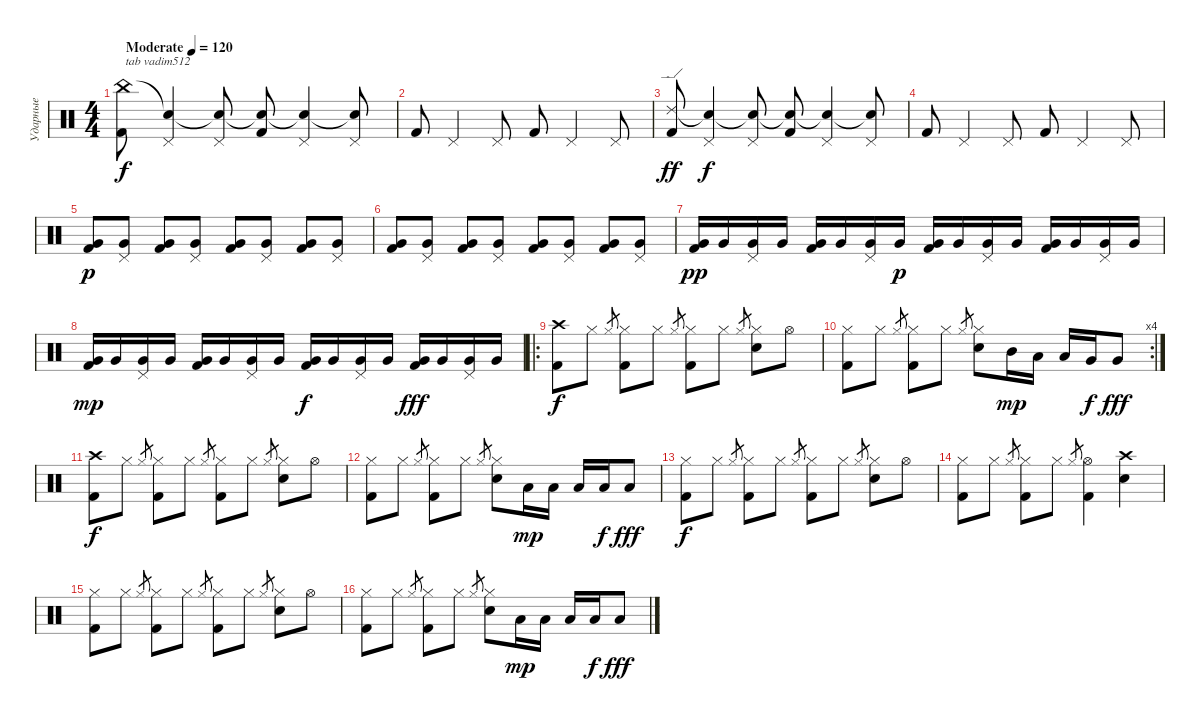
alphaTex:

\track ("Ударные" "Ударные") {instrument percussion}
\staff {score}
\articulation defaults
\ts (4 4)
\tempo (120 "Moderate")
\clef neutral
\ks c
("Kick (hit) 2" "China (hit)").8{txt "tab vadim512" dy f} ("Pedal Hi-Hat (hit)" "Snare (hit)"{t}).4 ("Pedal Hi-Hat (hit)" "Snare (hit)"{t}).8 ("Kick (hit) 2" "Snare (hit)"{t}).8 ("Pedal Hi-Hat (hit)" "Snare (hit)"{t}).4 ("Pedal Hi-Hat (hit)" "Snare (hit)"{t}).8 |
"Kick (hit) 2".8 "Pedal Hi-Hat (hit)".4 "Pedal Hi-Hat (hit)".8 "Kick (hit) 2".8 "Pedal Hi-Hat (hit)".4 "Pedal Hi-Hat (hit)".8 |
("Kick (hit) 2" "Ride (edge) 2").8{dy ff} ("Pedal Hi-Hat (hit)" "Snare (hit)"{t}).4{dy f} ("Pedal Hi-Hat (hit)" "Snare (hit)"{t}).8 ("Kick (hit) 2" "Snare (hit)"{t}).8 ("Pedal Hi-Hat (hit)" "Snare (hit)"{t}).4 ("Pedal Hi-Hat (hit)" "Snare (hit)"{t}).8 |
"Kick (hit) 2".8 "Pedal Hi-Hat (hit)".4 "Pedal Hi-Hat (hit)".8 "Kick (hit) 2".8 "Pedal Hi-Hat (hit)".4 "Pedal Hi-Hat (hit)".8 |
("Kick (hit) 2" "Very Low Tom (hit)").8{dy p} ("Pedal Hi-Hat (hit)" "Very Low Tom (hit)").8 ("Kick (hit) 2" "Very Low Tom (hit)").8 ("Pedal Hi-Hat (hit)" "Very Low Tom (hit)").8 ("Kick (hit) 2" "Very Low Tom (hit)").8 ("Pedal Hi-Hat (hit)" "Very Low Tom (hit)").8 ("Kick (hit) 2" "Very Low Tom (hit)").8 ("Pedal Hi-Hat (hit)" "Very Low Tom (hit)").8 |
("Kick (hit) 2" "Very Low Tom (hit)").8 ("Pedal Hi-Hat (hit)" "Very Low Tom (hit)").8 ("Kick (hit) 2" "Very Low Tom (hit)").8 ("Pedal Hi-Hat (hit)" "Very Low Tom (hit)").8 ("Kick (hit) 2" "Very Low Tom (hit)").8 ("Pedal Hi-Hat (hit)" "Very Low Tom (hit)").8 ("Kick (hit) 2" "Very Low Tom (hit)").8 ("Pedal Hi-Hat (hit)" "Very Low Tom (hit)").8 |
("Kick (hit) 2" "Very Low Tom (hit)").16{dy pp} "Very Low Tom (hit)".16 ("Pedal Hi-Hat (hit)" "Very Low Tom (hit)").16 "Very Low Tom (hit)".16 ("Kick (hit) 2" "Very Low Tom (hit)").16 "Very Low Tom (hit)".16 ("Pedal Hi-Hat (hit)" "Very Low Tom (hit)").16 "Very Low Tom (hit)".16{dy p} ("Kick (hit) 2" "Very Low Tom (hit)").16 "Very Low Tom (hit)".16 ("Pedal Hi-Hat (hit)" "Very Low Tom (hit)").16 "Very Low Tom (hit)".16 ("Kick (hit) 2" "Very Low Tom (hit)").16 "Very Low Tom (hit)".16 ("Pedal Hi-Hat (hit)" "Very Low Tom (hit)").16 "Very Low Tom (hit)".16 |
("Kick (hit) 2" "Very Low Tom (hit)").16{dy mp} "Very Low Tom (hit)".16 ("Pedal Hi-Hat (hit)" "Very Low Tom (hit)").16 "Very Low Tom (hit)".16 ("Kick (hit) 2" "Very Low Tom (hit)").16 "Very Low Tom (hit)".16 ("Pedal Hi-Hat (hit)" "Very Low Tom (hit)").16 "Very Low Tom (hit)".16 ("Kick (hit) 2" "Very Low Tom (hit)").16{dy f} "Very Low Tom (hit)".16 ("Pedal Hi-Hat (hit)" "Very Low Tom (hit)").16 "Very Low Tom (hit)".16 ("Kick (hit) 2" "Very Low Tom (hit)").16{dy fff} "Very Low Tom (hit)".16 ("Pedal Hi-Hat (hit)" "Very Low Tom (hit)").16 "Very Low Tom (hit)".16 |
\ro
("Kick (hit) 2" "Crash high (hit)").8{dy f} "Hi-Hat (closed)".8 "Hi-Hat (closed)".8{gr} ("Kick (hit) 2" "Hi-Hat (closed)").8 "Hi-Hat (closed)".8 "Hi-Hat (closed)".8{gr} ("Kick (hit) 2" "Hi-Hat (closed)").8 "Hi-Hat (closed)".8 "Hi-Hat (closed)".8{gr} ("Electric Snare (hit)" "Hi-Hat (closed)").8 "Hi-Hat (open)".8 |
\rc 4
("Kick (hit) 2" "Hi-Hat (closed)").8 "Hi-Hat (closed)".8 "Hi-Hat (closed)".8{gr} ("Kick (hit) 2" "Hi-Hat (closed)").8 "Hi-Hat (closed)".8 "Hi-Hat (closed)".8{gr} ("Electric Snare (hit)" "Hi-Hat (closed)").8 "Mid Tom (hit)".16{dy mp} "Low Tom (hit)".16 "Low Tom (hit)".16 "Very Low Tom (hit)".16{dy f} "Very Low Tom (hit)".8{dy fff} |
("Kick (hit) 2" "Crash high (hit)").8{dy f} "Hi-Hat (closed)".8 "Hi-Hat (closed)".8{gr} ("Kick (hit) 2" "Hi-Hat (closed)").8 "Hi-Hat (closed)".8 "Hi-Hat (closed)".8{gr} ("Kick (hit) 2" "Hi-Hat (closed)").8 "Hi-Hat (closed)".8 "Hi-Hat (closed)".8{gr} ("Electric Snare (hit)" "Hi-Hat (closed)").8 "Hi-Hat (open)".8 |
("Kick (hit) 2" "Hi-Hat (closed)").8 "Hi-Hat (closed)".8 "Hi-Hat (closed)".8{gr} ("Kick (hit) 2" "Hi-Hat (closed)").8 "Hi-Hat (closed)".8 "Hi-Hat (closed)".8{gr} ("Electric Snare (hit)" "Hi-Hat (closed)").8 "Low Tom (hit)".16{dy mp} "Low Tom (hit)".16 "Low Tom (hit)".16 "Low Tom (hit)".16{dy f} "Low Tom (hit)".8{dy fff} |
("Kick (hit) 2" "Hi-Hat (closed)").8{dy f} "Hi-Hat (closed)".8 "Hi-Hat (closed)".8{gr} ("Kick (hit) 2" "Hi-Hat (closed)").8 "Hi-Hat (closed)".8 "Hi-Hat (closed)".8{gr} ("Kick (hit) 2" "Hi-Hat (closed)").8 "Hi-Hat (closed)".8 "Hi-Hat (closed)".8{gr} ("Electric Snare (hit)" "Hi-Hat (closed)").8 "Hi-Hat (open)".8 |
("Kick (hit) 2" "Hi-Hat (closed)").8 "Hi-Hat (closed)".8 "Hi-Hat (closed)".8{gr} ("Kick (hit) 2" "Hi-Hat (closed)").8 "Hi-Hat (closed)".8 "Hi-Hat (closed)".8{gr} ("Kick (hit) 2" "Hi-Hat (open)").4 ("Electric Snare (hit)" "Crash high (hit)").4 |
("Kick (hit) 2" "Hi-Hat (closed)").8 "Hi-Hat (closed)".8 "Hi-Hat (closed)".8{gr} ("Kick (hit) 2" "Hi-Hat (closed)").8 "Hi-Hat (closed)".8 "Hi-Hat (closed)".8{gr} ("Kick (hit) 2" "Hi-Hat (closed)").8 "Hi-Hat (closed)".8 "Hi-Hat (closed)".8{gr} ("Electric Snare (hit)" "Hi-Hat (closed)").8 "Hi-Hat (open)".8 |
("Kick (hit) 2" "Hi-Hat (closed)").8 "Hi-Hat (closed)".8 "Hi-Hat (closed)".8{gr} ("Kick (hit) 2" "Hi-Hat (closed)").8 "Hi-Hat (closed)".8 "Hi-Hat (closed)".8{gr} ("Electric Snare (hit)" "Hi-Hat (closed)").8 "Low Tom (hit)".16{dy mp} "Low Tom (hit)".16 "Low Tom (hit)".16 "Low Tom (hit)".16{dy f} "Low Tom (hit)".8{dy fff}
